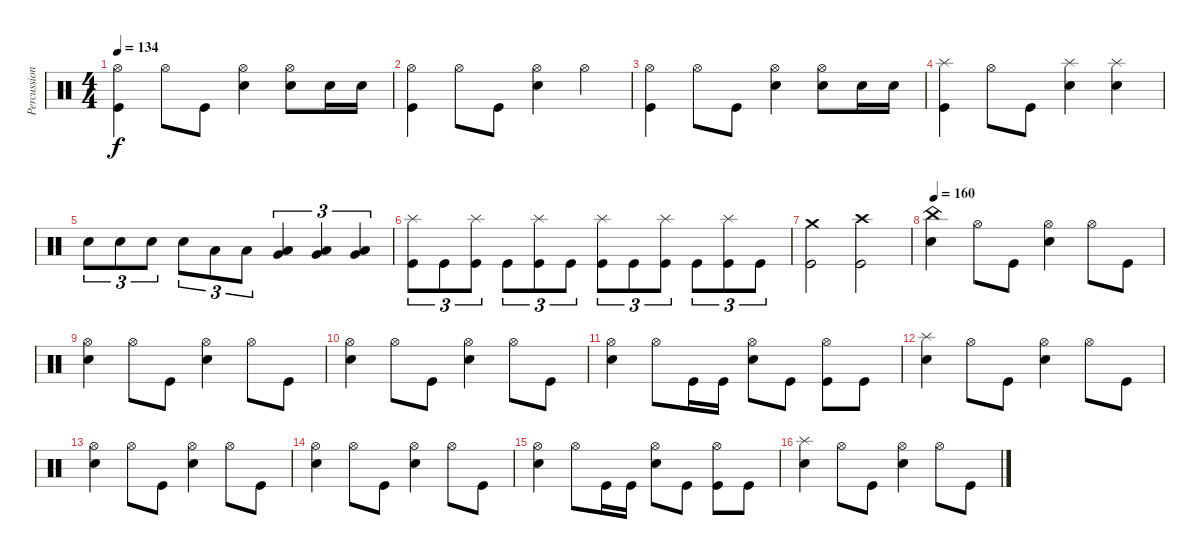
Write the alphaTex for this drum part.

\track ("Percussions" "Percussion") {instrument percussion}
\staff {score}
\articulation defaults
\ts (4 4)
\tempo 134
\clef neutral
\ks c
("Kick (hit)" "Hi-Hat (open)").4{dy f} "Hi-Hat (open)".8 "Kick (hit)".8 ("Electric Snare (hit)" "Hi-Hat (open)").4 ("Electric Snare (hit)" "Hi-Hat (open)").8 "Electric Snare (hit)".16 "Electric Snare (hit)".16 |
("Kick (hit)" "Hi-Hat (open)").4 "Hi-Hat (open)".8 "Kick (hit)".8 ("Electric Snare (hit)" "Hi-Hat (open)").4 "Hi-Hat (open)".4 |
("Kick (hit)" "Hi-Hat (open)").4 "Hi-Hat (open)".8 "Kick (hit)".8 ("Electric Snare (hit)" "Hi-Hat (open)").4 ("Electric Snare (hit)" "Hi-Hat (open)").8 "Electric Snare (hit)".16 "Electric Snare (hit)".16 |
("Kick (hit)" "Splash (hit)").4 "Hi-Hat (open)".8 "Kick (hit)".8 ("Electric Snare (hit)" "Splash (hit)").4 ("Electric Snare (hit)" "Splash (hit)").4 |
"Electric Snare (hit)".8{tu (3 2)} "Electric Snare (hit)".8{tu (3 2)} "Electric Snare (hit)".8{tu (3 2)} "Electric Snare (hit)".8{tu (3 2)} "Low Tom (hit)".8{tu (3 2)} "Low Tom (hit)".8{tu (3 2)} ("Low Tom (hit)" "Very Low Tom (hit)").4{tu (3 2)} ("Very Low Tom (hit)" "Low Tom (hit)").4{tu (3 2)} ("Very Low Tom (hit)" "Low Tom (hit)").4{tu (3 2)} |
("Kick (hit)" "Splash (hit)").8{tu (3 2)} "Kick (hit)".8{tu (3 2)} ("Kick (hit)" "Splash (hit)").8{tu (3 2)} "Kick (hit)".8{tu (3 2)} ("Kick (hit)" "Splash (hit)").8{tu (3 2)} "Kick (hit)".8{tu (3 2)} ("Kick (hit)" "Splash (hit)").8{tu (3 2)} "Kick (hit)".8{tu (3 2)} ("Kick (hit)" "Splash (hit)").8{tu (3 2)} "Kick (hit)".8{tu (3 2)} ("Kick (hit)" "Splash (hit)").8{tu (3 2)} "Kick (hit)".8{tu (3 2)} |
("Kick (hit)" "Crash medium (hit)").2 ("Kick (hit)" "Crash high (hit)").2 |
\tempo 160
("Electric Snare (hit)" "China (hit)").4 "Hi-Hat (open)".8 "Kick (hit)".8 ("Electric Snare (hit)" "Hi-Hat (open)").4 "Hi-Hat (open)".8 "Kick (hit)".8 |
("Electric Snare (hit)" "Hi-Hat (open)").4 "Hi-Hat (open)".8 "Kick (hit)".8 ("Electric Snare (hit)" "Hi-Hat (open)").4 "Hi-Hat (open)".8 "Kick (hit)".8 |
("Electric Snare (hit)" "Hi-Hat (open)").4 "Hi-Hat (open)".8 "Kick (hit)".8 ("Electric Snare (hit)" "Hi-Hat (open)").4 "Hi-Hat (open)".8 "Kick (hit)".8 |
("Electric Snare (hit)" "Hi-Hat (open)").4 "Hi-Hat (open)".8 "Kick (hit)".16 "Kick (hit)".16 ("Electric Snare (hit)" "Hi-Hat (open)").8 "Kick (hit)".8 ("Kick (hit)" "Hi-Hat (open)").8 "Kick (hit)".8 |
("Electric Snare (hit)" "Splash (hit)").4 "Hi-Hat (open)".8 "Kick (hit)".8 ("Electric Snare (hit)" "Hi-Hat (open)").4 "Hi-Hat (open)".8 "Kick (hit)".8 |
("Electric Snare (hit)" "Hi-Hat (open)").4 "Hi-Hat (open)".8 "Kick (hit)".8 ("Electric Snare (hit)" "Hi-Hat (open)").4 "Hi-Hat (open)".8 "Kick (hit)".8 |
("Electric Snare (hit)" "Hi-Hat (open)").4 "Hi-Hat (open)".8 "Kick (hit)".8 ("Electric Snare (hit)" "Hi-Hat (open)").4 "Hi-Hat (open)".8 "Kick (hit)".8 |
("Electric Snare (hit)" "Hi-Hat (open)").4 "Hi-Hat (open)".8 "Kick (hit)".16 "Kick (hit)".16 ("Electric Snare (hit)" "Hi-Hat (open)").8 "Kick (hit)".8 ("Kick (hit)" "Hi-Hat (open)").8 "Kick (hit)".8 |
("Electric Snare (hit)" "Splash (hit)").4 "Hi-Hat (open)".8 "Kick (hit)".8 ("Electric Snare (hit)" "Hi-Hat (open)").4 "Hi-Hat (open)".8 "Kick (hit)".8
